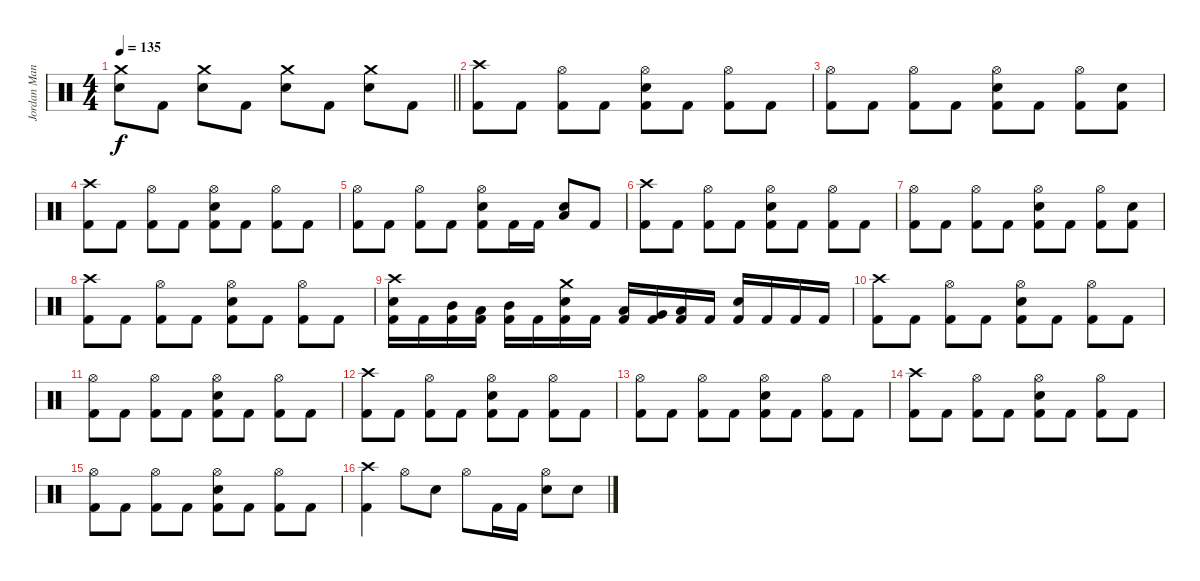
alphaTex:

\track ("Jordan Mancino" "Jordan Man") {instrument percussion}
\staff
\articulation defaults
\ts (4 4)
\tempo 135
\clef neutral
\barLineRight lightlight
\ks c
("Crash medium (hit)" "Snare (hit) 2").8{dy f} "Kick (hit) 2".8 ("Crash medium (hit)" "Snare (hit) 2").8 "Kick (hit) 2".8 ("Crash medium (hit)" "Snare (hit) 2").8 "Kick (hit) 2".8 ("Crash medium (hit)" "Snare (hit) 2").8 "Kick (hit) 2".8 |
\section ("" " ")
("Crash high (hit)" "Kick (hit) 2").8 "Kick (hit) 2".8 ("Hi-Hat (open)" "Kick (hit) 2").8 "Kick (hit) 2".8 ("Hi-Hat (open)" "Kick (hit) 2" "Snare (hit) 2").8 "Kick (hit) 2".8 ("Hi-Hat (open)" "Kick (hit) 2").8 "Kick (hit) 2".8 |
("Hi-Hat (open)" "Kick (hit) 2").8 "Kick (hit) 2".8 ("Hi-Hat (open)" "Kick (hit) 2").8 "Kick (hit) 2".8 ("Hi-Hat (open)" "Kick (hit) 2" "Snare (hit) 2").8 "Kick (hit) 2".8 ("Hi-Hat (open)" "Kick (hit) 2").8 ("Kick (hit) 2" "Snare (hit) 2").8 |
("Crash high (hit)" "Kick (hit) 2").8 "Kick (hit) 2".8 ("Hi-Hat (open)" "Kick (hit) 2").8 "Kick (hit) 2".8 ("Hi-Hat (open)" "Kick (hit) 2" "Snare (hit) 2").8 "Kick (hit) 2".8 ("Hi-Hat (open)" "Kick (hit) 2").8 "Kick (hit) 2".8 |
("Hi-Hat (open)" "Kick (hit) 2").8 "Kick (hit) 2".8 ("Hi-Hat (open)" "Kick (hit) 2").8 "Kick (hit) 2".8 ("Hi-Hat (open)" "Kick (hit) 2" "Snare (hit) 2").8 "Kick (hit) 2".16 "Kick (hit) 2".16 ("Snare (hit) 2" "Low Floor Tom (hit)").8 "Kick (hit) 2".8 |
("Crash high (hit)" "Kick (hit) 2").8 "Kick (hit) 2".8 ("Hi-Hat (open)" "Kick (hit) 2").8 "Kick (hit) 2".8 ("Hi-Hat (open)" "Kick (hit) 2" "Snare (hit) 2").8 "Kick (hit) 2".8 ("Hi-Hat (open)" "Kick (hit) 2").8 "Kick (hit) 2".8 |
("Hi-Hat (open)" "Kick (hit) 2").8 "Kick (hit) 2".8 ("Hi-Hat (open)" "Kick (hit) 2").8 "Kick (hit) 2".8 ("Hi-Hat (open)" "Kick (hit) 2" "Snare (hit) 2").8 "Kick (hit) 2".8 ("Hi-Hat (open)" "Kick (hit) 2").8 ("Kick (hit) 2" "Snare (hit) 2").8 |
("Crash high (hit)" "Kick (hit) 2").8 "Kick (hit) 2".8 ("Hi-Hat (open)" "Kick (hit) 2").8 "Kick (hit) 2".8 ("Hi-Hat (open)" "Kick (hit) 2" "Snare (hit) 2").8 "Kick (hit) 2".8 ("Hi-Hat (open)" "Kick (hit) 2").8 "Kick (hit) 2".8 |
("Crash high (hit)" "Kick (hit) 2" "Snare (hit) 2").16 "Kick (hit) 2".16 ("Kick (hit) 2" "Mid Tom (hit)").16 ("Kick (hit) 2" "Low Tom (hit)").16 ("Kick (hit) 2" "Mid Tom (hit)").16 "Kick (hit) 2".16 ("Crash medium (hit)" "Kick (hit) 2" "Snare (hit) 2").16 "Kick (hit) 2".16 ("Kick (hit) 2" "Low Tom (hit)").16 ("Kick (hit) 2" "Very Low Tom (hit)").16 ("Kick (hit) 2" "Low Tom (hit)").16 "Kick (hit) 2".16 ("Kick (hit) 2" "Snare (hit) 2").16 "Kick (hit) 2".16 "Kick (hit) 2".16 "Kick (hit) 2".16 |
("Crash high (hit)" "Kick (hit) 2").8 "Kick (hit) 2".8 ("Hi-Hat (open)" "Kick (hit) 2").8 "Kick (hit) 2".8 ("Hi-Hat (open)" "Kick (hit) 2" "Snare (hit) 2").8 "Kick (hit) 2".8 ("Hi-Hat (open)" "Kick (hit) 2").8 "Kick (hit) 2".8 |
("Hi-Hat (open)" "Kick (hit) 2").8 "Kick (hit) 2".8 ("Hi-Hat (open)" "Kick (hit) 2").8 "Kick (hit) 2".8 ("Hi-Hat (open)" "Kick (hit) 2" "Snare (hit) 2").8 "Kick (hit) 2".8 ("Hi-Hat (open)" "Kick (hit) 2").8 "Kick (hit) 2".8 |
("Crash high (hit)" "Kick (hit) 2").8 "Kick (hit) 2".8 ("Hi-Hat (open)" "Kick (hit) 2").8 "Kick (hit) 2".8 ("Hi-Hat (open)" "Kick (hit) 2" "Snare (hit) 2").8 "Kick (hit) 2".8 ("Hi-Hat (open)" "Kick (hit) 2").8 "Kick (hit) 2".8 |
("Hi-Hat (open)" "Kick (hit) 2").8 "Kick (hit) 2".8 ("Hi-Hat (open)" "Kick (hit) 2").8 "Kick (hit) 2".8 ("Hi-Hat (open)" "Kick (hit) 2" "Snare (hit) 2").8 "Kick (hit) 2".8 ("Hi-Hat (open)" "Kick (hit) 2").8 "Kick (hit) 2".8 |
("Crash high (hit)" "Kick (hit) 2").8 "Kick (hit) 2".8 ("Hi-Hat (open)" "Kick (hit) 2").8 "Kick (hit) 2".8 ("Hi-Hat (open)" "Kick (hit) 2" "Snare (hit) 2").8 "Kick (hit) 2".8 ("Hi-Hat (open)" "Kick (hit) 2").8 "Kick (hit) 2".8 |
("Hi-Hat (open)" "Kick (hit) 2").8 "Kick (hit) 2".8 ("Hi-Hat (open)" "Kick (hit) 2").8 "Kick (hit) 2".8 ("Hi-Hat (open)" "Kick (hit) 2" "Snare (hit) 2").8 "Kick (hit) 2".8 ("Hi-Hat (open)" "Kick (hit) 2").8 "Kick (hit) 2".8 |
("Crash high (hit)" "Kick (hit) 2").4 "Hi-Hat (open)".8 "Snare (hit) 2".8 "Hi-Hat (open)".8 "Kick (hit) 2".16 "Kick (hit) 2".16 ("Hi-Hat (open)" "Snare (hit) 2").8 "Snare (hit) 2".8
